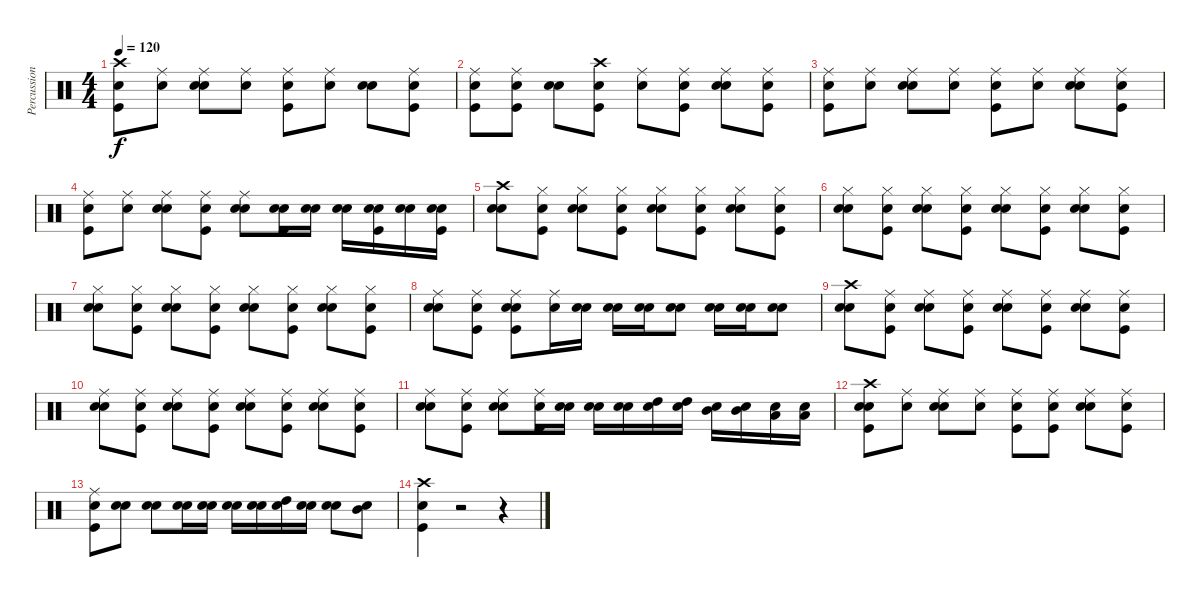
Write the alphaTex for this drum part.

\track ("Percussion" "Percussion") {instrument percussion}
\staff {score}
\articulation defaults
\ts (4 4)
\tempo 120
\clef neutral
\ks c
("Snare (hit)" "Kick (hit)" "Crash high (hit)").8{dy f} ("Snare (hit)" "Ride (middle)").8 ("Snare (hit)" "Electric Snare (hit)" "Ride (middle)").8 ("Snare (hit)" "Ride (middle)").8 ("Snare (hit)" "Kick (hit)" "Ride (middle)").8 ("Snare (hit)" "Ride (middle)").8 ("Snare (hit)" "Electric Snare (hit)").8 ("Snare (hit)" "Kick (hit)" "Ride (middle)").8 |
("Snare (hit)" "Kick (hit)" "Ride (middle)").8 ("Snare (hit)" "Kick (hit)" "Ride (middle)").8 ("Snare (hit)" "Electric Snare (hit)").8 ("Snare (hit)" "Kick (hit)" "Crash high (hit)").8 ("Snare (hit)" "Ride (middle)").8 ("Snare (hit)" "Kick (hit)" "Ride (middle)").8 ("Snare (hit)" "Electric Snare (hit)" "Ride (middle)").8 ("Snare (hit)" "Kick (hit)" "Ride (middle)").8 |
("Snare (hit)" "Kick (hit)" "Ride (middle)").8 ("Snare (hit)" "Ride (middle)").8 ("Snare (hit)" "Electric Snare (hit)" "Ride (middle)").8 ("Snare (hit)" "Ride (middle)").8 ("Snare (hit)" "Kick (hit)" "Ride (middle)").8 ("Snare (hit)" "Ride (middle)").8 ("Snare (hit)" "Electric Snare (hit)" "Ride (middle)").8 ("Snare (hit)" "Kick (hit)" "Ride (middle)").8 |
("Snare (hit)" "Kick (hit)" "Ride (middle)").8 ("Snare (hit)" "Ride (middle)").8 ("Snare (hit)" "Electric Snare (hit)" "Ride (middle)").8 ("Snare (hit)" "Kick (hit)" "Ride (middle)").8 ("Snare (hit)" "Electric Snare (hit)" "Ride (middle)").8 ("Snare (hit)" "Kick (hit)" "Electric Snare (hit)").16 ("Snare (hit)" "Electric Snare (hit)").16 ("Snare (hit)" "Electric Snare (hit)").16 ("Snare (hit)" "Kick (hit)" "Electric Snare (hit)").16 ("Snare (hit)" "Electric Snare (hit)").16 ("Snare (hit)" "Kick (hit)" "Electric Snare (hit)").16 |
("Snare (hit)" "Electric Snare (hit)" "Crash high (hit)").8 ("Snare (hit)" "Kick (hit)" "Hi-Hat (closed)").8 ("Snare (hit)" "Electric Snare (hit)" "Hi-Hat (closed)").8 ("Snare (hit)" "Kick (hit)" "Hi-Hat (closed)").8 ("Snare (hit)" "Electric Snare (hit)" "Hi-Hat (closed)").8 ("Snare (hit)" "Kick (hit)" "Hi-Hat (closed)").8 ("Snare (hit)" "Electric Snare (hit)" "Hi-Hat (closed)").8 ("Snare (hit)" "Kick (hit)" "Hi-Hat (closed)").8 |
("Snare (hit)" "Electric Snare (hit)" "Hi-Hat (closed)").8 ("Snare (hit)" "Kick (hit)" "Hi-Hat (closed)").8 ("Snare (hit)" "Electric Snare (hit)" "Hi-Hat (closed)").8 ("Snare (hit)" "Kick (hit)" "Hi-Hat (closed)").8 ("Snare (hit)" "Electric Snare (hit)" "Hi-Hat (closed)").8 ("Snare (hit)" "Kick (hit)" "Hi-Hat (closed)").8 ("Snare (hit)" "Electric Snare (hit)" "Hi-Hat (closed)").8 ("Snare (hit)" "Kick (hit)" "Hi-Hat (closed)").8 |
("Snare (hit)" "Electric Snare (hit)" "Hi-Hat (closed)").8 ("Snare (hit)" "Kick (hit)" "Hi-Hat (closed)").8 ("Snare (hit)" "Electric Snare (hit)" "Hi-Hat (closed)").8 ("Snare (hit)" "Kick (hit)" "Hi-Hat (closed)").8 ("Snare (hit)" "Electric Snare (hit)" "Hi-Hat (closed)").8 ("Snare (hit)" "Kick (hit)" "Hi-Hat (closed)").8 ("Snare (hit)" "Electric Snare (hit)" "Hi-Hat (closed)").8 ("Snare (hit)" "Kick (hit)" "Hi-Hat (closed)").8 |
("Snare (hit)" "Electric Snare (hit)" "Ride (middle)").8 ("Snare (hit)" "Kick (hit)" "Ride (middle)").8 ("Snare (hit)" "Kick (hit)" "Electric Snare (hit)" "Ride (middle)").8 ("Snare (hit)" "Ride (middle)").16 ("Snare (hit)" "Electric Snare (hit)").16 ("Snare (hit)" "Electric Snare (hit)").16 ("Snare (hit)" "Electric Snare (hit)").16 ("Snare (hit)" "Electric Snare (hit)").8 ("Snare (hit)" "Electric Snare (hit)").16 ("Snare (hit)" "Electric Snare (hit)").16 ("Snare (hit)" "Electric Snare (hit)").8 |
("Snare (hit)" "Electric Snare (hit)" "Crash high (hit)").8 ("Snare (hit)" "Kick (hit)" "Ride (middle)").8 ("Snare (hit)" "Electric Snare (hit)" "Ride (middle)").8 ("Snare (hit)" "Kick (hit)" "Ride (middle)").8 ("Snare (hit)" "Electric Snare (hit)" "Ride (middle)").8 ("Snare (hit)" "Kick (hit)" "Ride (middle)").8 ("Snare (hit)" "Electric Snare (hit)" "Ride (middle)").8 ("Snare (hit)" "Kick (hit)" "Ride (middle)").8 |
("Snare (hit)" "Electric Snare (hit)" "Ride (middle)").8 ("Snare (hit)" "Kick (hit)" "Ride (middle)").8 ("Snare (hit)" "Electric Snare (hit)" "Ride (middle)").8 ("Snare (hit)" "Kick (hit)" "Ride (middle)").8 ("Snare (hit)" "Electric Snare (hit)" "Ride (middle)").8 ("Snare (hit)" "Kick (hit)" "Ride (middle)").8 ("Snare (hit)" "Electric Snare (hit)" "Ride (middle)").8 ("Snare (hit)" "Kick (hit)" "Ride (middle)").8 |
("Snare (hit)" "Electric Snare (hit)" "Ride (middle)").8 ("Snare (hit)" "Kick (hit)" "Ride (middle)").8 ("Snare (hit)" "Electric Snare (hit)" "Ride (middle)").8 ("Snare (hit)" "Kick (hit)" "Ride (middle)").16 ("Snare (hit)" "Electric Snare (hit)").16 ("Snare (hit)" "Electric Snare (hit)").16 ("Snare (hit)" "Electric Snare (hit)").16 ("Snare (hit)" "High Tom (hit)").16 ("Snare (hit)" "High Tom (hit)").16 ("Snare (hit)" "Mid Tom (hit)").16 ("Snare (hit)" "Mid Tom (hit)").16 ("Snare (hit)" "Low Tom (hit)").16 ("Snare (hit)" "Low Tom (hit)").16 |
("Snare (hit)" "Kick (hit)" "Electric Snare (hit)" "Crash high (hit)").8 ("Snare (hit)" "Ride (middle)").8 ("Snare (hit)" "Electric Snare (hit)" "Ride (middle)").8 ("Snare (hit)" "Ride (middle)").8 ("Snare (hit)" "Kick (hit)" "Ride (middle)").8 ("Snare (hit)" "Kick (hit)" "Ride (middle)").8 ("Snare (hit)" "Electric Snare (hit)" "Ride (middle)").8 ("Snare (hit)" "Kick (hit)" "Ride (middle)").8 |
("Snare (hit)" "Kick (hit)" "Ride (middle)").8 ("Snare (hit)" "Electric Snare (hit)").8 ("Snare (hit)" "Electric Snare (hit)").8 ("Snare (hit)" "Electric Snare (hit)").16 ("Snare (hit)" "Electric Snare (hit)").16 ("Snare (hit)" "Electric Snare (hit)").16 ("Snare (hit)" "Electric Snare (hit)").16 ("Snare (hit)" "High Tom (hit)").16 ("Snare (hit)" "Electric Snare (hit)").16 ("Snare (hit)" "Electric Snare (hit)").8 ("Snare (hit)" "Mid Tom (hit)").8 |
("Snare (hit)" "Kick (hit)" "Crash high (hit)").4 r.2 r.4
